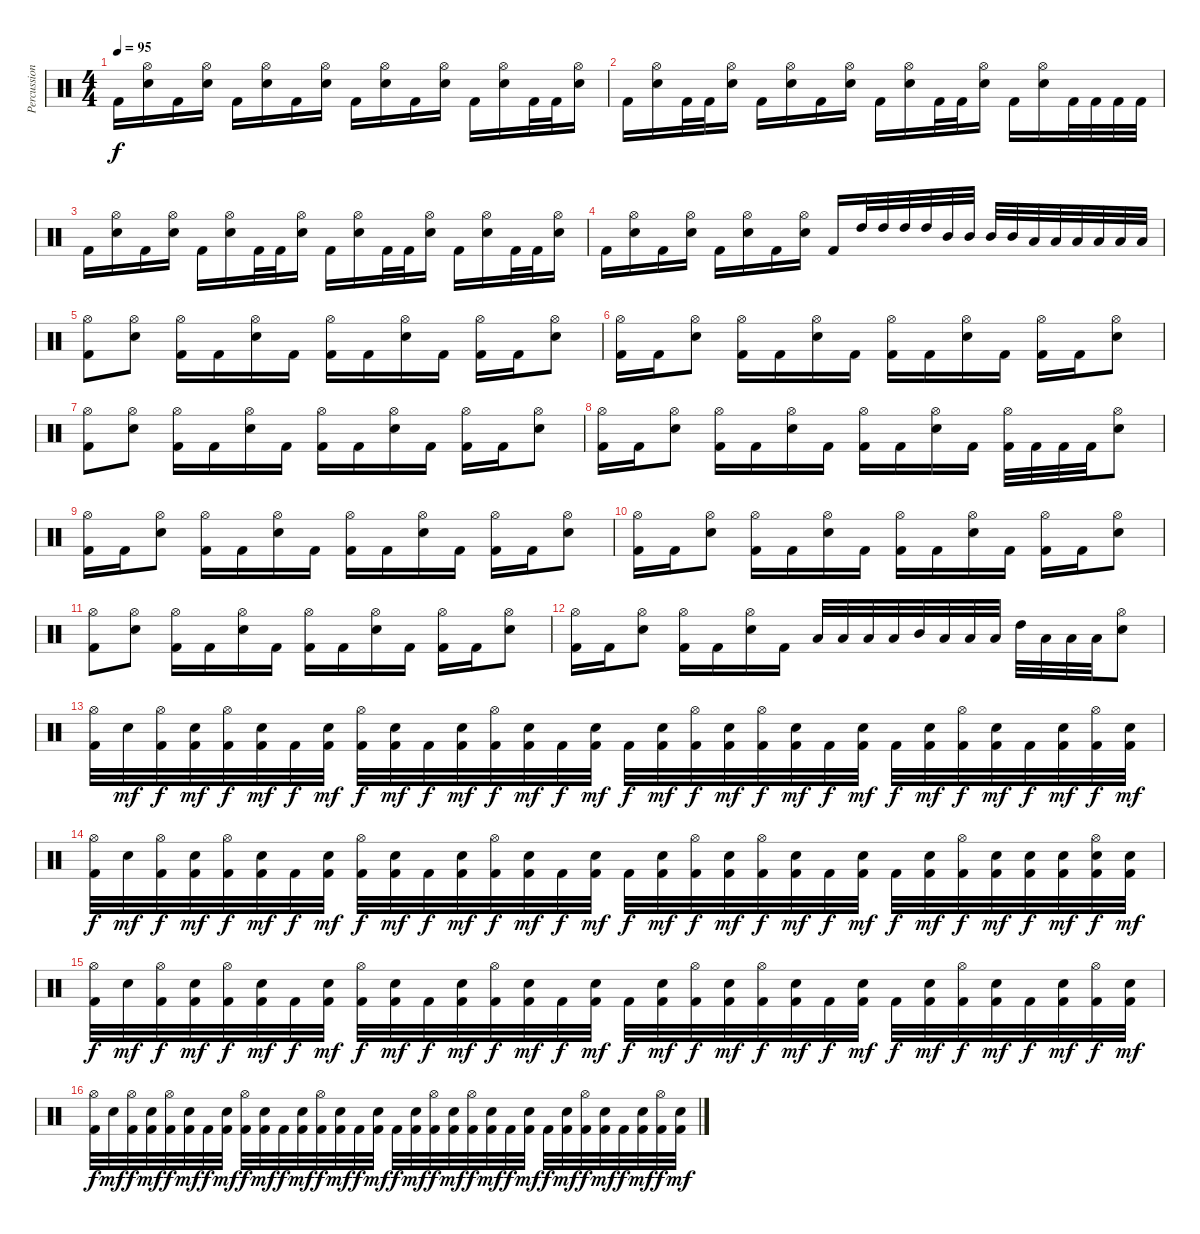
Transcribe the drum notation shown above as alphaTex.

\track ("Percussion" "Percussion") {instrument percussion}
\staff {score}
\articulation defaults
\ts (4 4)
\tempo 95
\clef neutral
\ks c "Kick (hit) 2".16{dy f}
("Hi-Hat (open)" "Electric Snare (hit)").16 "Kick (hit) 2".16 ("Hi-Hat (open)" "Electric Snare (hit)").16 "Kick (hit) 2".16 ("Hi-Hat (open)" "Electric Snare (hit)").16 "Kick (hit) 2".16 ("Hi-Hat (open)" "Electric Snare (hit)").16 "Kick (hit) 2".16 ("Hi-Hat (open)" "Electric Snare (hit)").16 "Kick (hit) 2".16 ("Hi-Hat (open)" "Electric Snare (hit)").16 "Kick (hit) 2".16 ("Hi-Hat (open)" "Electric Snare (hit)").16 "Kick (hit) 2".32 "Kick (hit) 2".32 ("Hi-Hat (open)" "Electric Snare (hit)").16 |
"Kick (hit) 2".16 ("Hi-Hat (open)" "Electric Snare (hit)").16 "Kick (hit) 2".32 "Kick (hit) 2".32 ("Hi-Hat (open)" "Electric Snare (hit)").16 "Kick (hit) 2".16 ("Hi-Hat (open)" "Electric Snare (hit)").16 "Kick (hit) 2".16 ("Hi-Hat (open)" "Electric Snare (hit)").16 "Kick (hit) 2".16 ("Hi-Hat (open)" "Electric Snare (hit)").16 "Kick (hit) 2".32 "Kick (hit) 2".32 ("Hi-Hat (open)" "Electric Snare (hit)").16 "Kick (hit) 2".16 ("Hi-Hat (open)" "Electric Snare (hit)").16 "Kick (hit) 2".32 "Kick (hit) 2".32 "Kick (hit) 2".32 "Kick (hit) 2".32 |
"Kick (hit) 2".16 ("Hi-Hat (open)" "Electric Snare (hit)").16 "Kick (hit) 2".16 ("Hi-Hat (open)" "Electric Snare (hit)").16 "Kick (hit) 2".16 ("Hi-Hat (open)" "Electric Snare (hit)").16 "Kick (hit) 2".32 "Kick (hit) 2".32 ("Hi-Hat (open)" "Electric Snare (hit)").16 "Kick (hit) 2".16 ("Hi-Hat (open)" "Electric Snare (hit)").16 "Kick (hit) 2".32 "Kick (hit) 2".32 ("Hi-Hat (open)" "Electric Snare (hit)").16 "Kick (hit) 2".16 ("Hi-Hat (open)" "Electric Snare (hit)").16 "Kick (hit) 2".32 "Kick (hit) 2".32 ("Hi-Hat (open)" "Electric Snare (hit)").16 |
"Kick (hit) 2".16 ("Hi-Hat (open)" "Electric Snare (hit)").16 "Kick (hit) 2".16 ("Hi-Hat (open)" "Electric Snare (hit)").16 "Kick (hit) 2".16 ("Hi-Hat (open)" "Electric Snare (hit)").16 "Kick (hit) 2".16 ("Hi-Hat (open)" "Electric Snare (hit)").16 "Kick (hit) 2".16 "High Tom (hit)".32 "High Tom (hit)".32 "High Tom (hit)".32 "High Tom (hit)".32 "Mid Tom (hit)".32 "Mid Tom (hit)".32 "Mid Tom (hit)".32 "Mid Tom (hit)".32 "Low Tom (hit)".32 "Low Tom (hit)".32 "Low Tom (hit)".32 "Low Tom (hit)".32 "Low Tom (hit)".32 "Low Tom (hit)".32 |
("Hi-Hat (open)" "Kick (hit) 2").8 ("Hi-Hat (open)" "Electric Snare (hit)").8 ("Hi-Hat (open)" "Kick (hit) 2").16 "Kick (hit) 2".16 ("Hi-Hat (open)" "Electric Snare (hit)").16 "Kick (hit) 2".16 ("Hi-Hat (open)" "Kick (hit) 2").16 "Kick (hit) 2".16 ("Hi-Hat (open)" "Electric Snare (hit)").16 "Kick (hit) 2".16 ("Hi-Hat (open)" "Kick (hit) 2").16 "Kick (hit) 2".16 ("Hi-Hat (open)" "Electric Snare (hit)").8 |
("Hi-Hat (open)" "Kick (hit) 2").16 "Kick (hit) 2".16 ("Hi-Hat (open)" "Electric Snare (hit)").8 ("Hi-Hat (open)" "Kick (hit) 2").16 "Kick (hit) 2".16 ("Hi-Hat (open)" "Electric Snare (hit)").16 "Kick (hit) 2".16 ("Hi-Hat (open)" "Kick (hit) 2").16 "Kick (hit) 2".16 ("Hi-Hat (open)" "Electric Snare (hit)").16 "Kick (hit) 2".16 ("Hi-Hat (open)" "Kick (hit) 2").16 "Kick (hit) 2".16 ("Hi-Hat (open)" "Electric Snare (hit)").8 |
("Hi-Hat (open)" "Kick (hit) 2").8 ("Hi-Hat (open)" "Electric Snare (hit)").8 ("Hi-Hat (open)" "Kick (hit) 2").16 "Kick (hit) 2".16 ("Hi-Hat (open)" "Electric Snare (hit)").16 "Kick (hit) 2".16 ("Hi-Hat (open)" "Kick (hit) 2").16 "Kick (hit) 2".16 ("Hi-Hat (open)" "Electric Snare (hit)").16 "Kick (hit) 2".16 ("Hi-Hat (open)" "Kick (hit) 2").16 "Kick (hit) 2".16 ("Hi-Hat (open)" "Electric Snare (hit)").8 |
("Hi-Hat (open)" "Kick (hit) 2").16 "Kick (hit) 2".16 ("Hi-Hat (open)" "Electric Snare (hit)").8 ("Hi-Hat (open)" "Kick (hit) 2").16 "Kick (hit) 2".16 ("Hi-Hat (open)" "Electric Snare (hit)").16 "Kick (hit) 2".16 ("Hi-Hat (open)" "Kick (hit) 2").16 "Kick (hit) 2".16 ("Hi-Hat (open)" "Electric Snare (hit)").16 "Kick (hit) 2".16 ("Hi-Hat (open)" "Kick (hit) 2").32 "Kick (hit) 2".32 "Kick (hit) 2".32 "Kick (hit) 2".32 ("Hi-Hat (open)" "Electric Snare (hit)").8 |
("Hi-Hat (open)" "Kick (hit) 2").16 "Kick (hit) 2".16 ("Hi-Hat (open)" "Electric Snare (hit)").8 ("Hi-Hat (open)" "Kick (hit) 2").16 "Kick (hit) 2".16 ("Hi-Hat (open)" "Electric Snare (hit)").16 "Kick (hit) 2".16 ("Hi-Hat (open)" "Kick (hit) 2").16 "Kick (hit) 2".16 ("Hi-Hat (open)" "Electric Snare (hit)").16 "Kick (hit) 2".16 ("Hi-Hat (open)" "Kick (hit) 2").16 "Kick (hit) 2".16 ("Hi-Hat (open)" "Electric Snare (hit)").8 |
("Hi-Hat (open)" "Kick (hit) 2").16 "Kick (hit) 2".16 ("Hi-Hat (open)" "Electric Snare (hit)").8 ("Hi-Hat (open)" "Kick (hit) 2").16 "Kick (hit) 2".16 ("Hi-Hat (open)" "Electric Snare (hit)").16 "Kick (hit) 2".16 ("Hi-Hat (open)" "Kick (hit) 2").16 "Kick (hit) 2".16 ("Hi-Hat (open)" "Electric Snare (hit)").16 "Kick (hit) 2".16 ("Hi-Hat (open)" "Kick (hit) 2").16 "Kick (hit) 2".16 ("Hi-Hat (open)" "Electric Snare (hit)").8 |
("Hi-Hat (open)" "Kick (hit) 2").8 ("Hi-Hat (open)" "Electric Snare (hit)").8 ("Hi-Hat (open)" "Kick (hit) 2").16 "Kick (hit) 2".16 ("Hi-Hat (open)" "Electric Snare (hit)").16 "Kick (hit) 2".16 ("Hi-Hat (open)" "Kick (hit) 2").16 "Kick (hit) 2".16 ("Hi-Hat (open)" "Electric Snare (hit)").16 "Kick (hit) 2".16 ("Hi-Hat (open)" "Kick (hit) 2").16 "Kick (hit) 2".16 ("Hi-Hat (open)" "Electric Snare (hit)").8 |
("Hi-Hat (open)" "Kick (hit) 2").16 "Kick (hit) 2".16 ("Hi-Hat (open)" "Electric Snare (hit)").8 ("Hi-Hat (open)" "Kick (hit) 2").16 "Kick (hit) 2".16 ("Hi-Hat (open)" "Electric Snare (hit)").16 "Kick (hit) 2".16 "Low Tom (hit)".32 "Low Tom (hit)".32 "Low Tom (hit)".32 "Low Tom (hit)".32 "Mid Tom (hit)".32 "Low Tom (hit)".32 "Low Tom (hit)".32 "Low Tom (hit)".32 "High Tom (hit)".32 "Low Tom (hit)".32 "Low Tom (hit)".32 "Low Tom (hit)".32 ("Hi-Hat (open)" "Electric Snare (hit)").8 |
("Hi-Hat (open)" "Kick (hit) 2").32 "Electric Snare (hit)".32{dy mf} ("Hi-Hat (open)" "Kick (hit) 2").32{dy f} ("Electric Snare (hit)" "Kick (hit) 2").32{dy mf} ("Hi-Hat (open)" "Kick (hit) 2").32{dy f} ("Electric Snare (hit)" "Kick (hit) 2").32{dy mf} "Kick (hit) 2".32{dy f} ("Electric Snare (hit)" "Kick (hit) 2").32{dy mf} ("Hi-Hat (open)" "Kick (hit) 2").32{dy f} ("Electric Snare (hit)" "Kick (hit) 2").32{dy mf} "Kick (hit) 2".32{dy f} ("Electric Snare (hit)" "Kick (hit) 2").32{dy mf} ("Hi-Hat (open)" "Kick (hit) 2").32{dy f} ("Electric Snare (hit)" "Kick (hit) 2").32{dy mf} "Kick (hit) 2".32{dy f} ("Electric Snare (hit)" "Kick (hit) 2").32{dy mf} "Kick (hit) 2".32{dy f} ("Electric Snare (hit)" "Kick (hit) 2").32{dy mf} ("Hi-Hat (open)" "Kick (hit) 2").32{dy f} ("Electric Snare (hit)" "Kick (hit) 2").32{dy mf} ("Hi-Hat (open)" "Kick (hit) 2").32{dy f} ("Electric Snare (hit)" "Kick (hit) 2").32{dy mf} "Kick (hit) 2".32{dy f} ("Electric Snare (hit)" "Kick (hit) 2").32{dy mf} "Kick (hit) 2".32{dy f} ("Electric Snare (hit)" "Kick (hit) 2").32{dy mf} ("Hi-Hat (open)" "Kick (hit) 2").32{dy f} ("Electric Snare (hit)" "Kick (hit) 2").32{dy mf} "Kick (hit) 2".32{dy f} ("Electric Snare (hit)" "Kick (hit) 2").32{dy mf} ("Hi-Hat (open)" "Kick (hit) 2").32{dy f} ("Electric Snare (hit)" "Kick (hit) 2").32{dy mf} |
("Hi-Hat (open)" "Kick (hit) 2").32{dy f} "Electric Snare (hit)".32{dy mf} ("Hi-Hat (open)" "Kick (hit) 2").32{dy f} ("Electric Snare (hit)" "Kick (hit) 2").32{dy mf} ("Hi-Hat (open)" "Kick (hit) 2").32{dy f} ("Electric Snare (hit)" "Kick (hit) 2").32{dy mf} "Kick (hit) 2".32{dy f} ("Electric Snare (hit)" "Kick (hit) 2").32{dy mf} ("Hi-Hat (open)" "Kick (hit) 2").32{dy f} ("Electric Snare (hit)" "Kick (hit) 2").32{dy mf} "Kick (hit) 2".32{dy f} ("Electric Snare (hit)" "Kick (hit) 2").32{dy mf} ("Hi-Hat (open)" "Kick (hit) 2").32{dy f} ("Electric Snare (hit)" "Kick (hit) 2").32{dy mf} "Kick (hit) 2".32{dy f} ("Electric Snare (hit)" "Kick (hit) 2").32{dy mf} "Kick (hit) 2".32{dy f} ("Electric Snare (hit)" "Kick (hit) 2").32{dy mf} ("Hi-Hat (open)" "Kick (hit) 2").32{dy f} ("Electric Snare (hit)" "Kick (hit) 2").32{dy mf} ("Hi-Hat (open)" "Kick (hit) 2").32{dy f} ("Electric Snare (hit)" "Kick (hit) 2").32{dy mf} "Kick (hit) 2".32{dy f} ("Electric Snare (hit)" "Kick (hit) 2").32{dy mf} "Kick (hit) 2".32{dy f} ("Electric Snare (hit)" "Kick (hit) 2").32{dy mf} ("Hi-Hat (open)" "Kick (hit) 2").32{dy f} ("Electric Snare (hit)" "Kick (hit) 2").32{dy mf} ("Electric Snare (hit)" "Kick (hit) 2").32{dy f} ("Electric Snare (hit)" "Kick (hit) 2").32{dy mf} ("Hi-Hat (open)" "Electric Snare (hit)" "Kick (hit) 2").32{dy f} ("Electric Snare (hit)" "Kick (hit) 2").32{dy mf} |
("Hi-Hat (open)" "Kick (hit) 2").32{dy f} "Electric Snare (hit)".32{dy mf} ("Hi-Hat (open)" "Kick (hit) 2").32{dy f} ("Electric Snare (hit)" "Kick (hit) 2").32{dy mf} ("Hi-Hat (open)" "Kick (hit) 2").32{dy f} ("Electric Snare (hit)" "Kick (hit) 2").32{dy mf} "Kick (hit) 2".32{dy f} ("Electric Snare (hit)" "Kick (hit) 2").32{dy mf} ("Hi-Hat (open)" "Kick (hit) 2").32{dy f} ("Electric Snare (hit)" "Kick (hit) 2").32{dy mf} "Kick (hit) 2".32{dy f} ("Electric Snare (hit)" "Kick (hit) 2").32{dy mf} ("Hi-Hat (open)" "Kick (hit) 2").32{dy f} ("Electric Snare (hit)" "Kick (hit) 2").32{dy mf} "Kick (hit) 2".32{dy f} ("Electric Snare (hit)" "Kick (hit) 2").32{dy mf} "Kick (hit) 2".32{dy f} ("Electric Snare (hit)" "Kick (hit) 2").32{dy mf} ("Hi-Hat (open)" "Kick (hit) 2").32{dy f} ("Electric Snare (hit)" "Kick (hit) 2").32{dy mf} ("Hi-Hat (open)" "Kick (hit) 2").32{dy f} ("Electric Snare (hit)" "Kick (hit) 2").32{dy mf} "Kick (hit) 2".32{dy f} ("Electric Snare (hit)" "Kick (hit) 2").32{dy mf} "Kick (hit) 2".32{dy f} ("Electric Snare (hit)" "Kick (hit) 2").32{dy mf} ("Hi-Hat (open)" "Kick (hit) 2").32{dy f} ("Electric Snare (hit)" "Kick (hit) 2").32{dy mf} "Kick (hit) 2".32{dy f} ("Electric Snare (hit)" "Kick (hit) 2").32{dy mf} ("Hi-Hat (open)" "Kick (hit) 2").32{dy f} ("Electric Snare (hit)" "Kick (hit) 2").32{dy mf} |
("Hi-Hat (open)" "Kick (hit) 2").32{dy f} "Electric Snare (hit)".32{dy mf} ("Hi-Hat (open)" "Kick (hit) 2").32{dy f} ("Electric Snare (hit)" "Kick (hit) 2").32{dy mf} ("Hi-Hat (open)" "Kick (hit) 2").32{dy f} ("Electric Snare (hit)" "Kick (hit) 2").32{dy mf} "Kick (hit) 2".32{dy f} ("Electric Snare (hit)" "Kick (hit) 2").32{dy mf} ("Hi-Hat (open)" "Kick (hit) 2").32{dy f} ("Electric Snare (hit)" "Kick (hit) 2").32{dy mf} "Kick (hit) 2".32{dy f} ("Electric Snare (hit)" "Kick (hit) 2").32{dy mf} ("Hi-Hat (open)" "Kick (hit) 2").32{dy f} ("Electric Snare (hit)" "Kick (hit) 2").32{dy mf} "Kick (hit) 2".32{dy f} ("Electric Snare (hit)" "Kick (hit) 2").32{dy mf} "Kick (hit) 2".32{dy f} ("Electric Snare (hit)" "Kick (hit) 2").32{dy mf} ("Hi-Hat (open)" "Kick (hit) 2").32{dy f} ("Electric Snare (hit)" "Kick (hit) 2").32{dy mf} ("Hi-Hat (open)" "Kick (hit) 2").32{dy f} ("Electric Snare (hit)" "Kick (hit) 2").32{dy mf} "Kick (hit) 2".32{dy f} ("Electric Snare (hit)" "Kick (hit) 2").32{dy mf} "Kick (hit) 2".32{dy f} ("Electric Snare (hit)" "Kick (hit) 2").32{dy mf} ("Hi-Hat (open)" "Kick (hit) 2").32{dy f} ("Electric Snare (hit)" "Kick (hit) 2").32{dy mf} "Kick (hit) 2".32{dy f} ("Electric Snare (hit)" "Kick (hit) 2").32{dy mf} ("Hi-Hat (open)" "Kick (hit) 2").32{dy f} ("Electric Snare (hit)" "Kick (hit) 2").32{dy mf}
